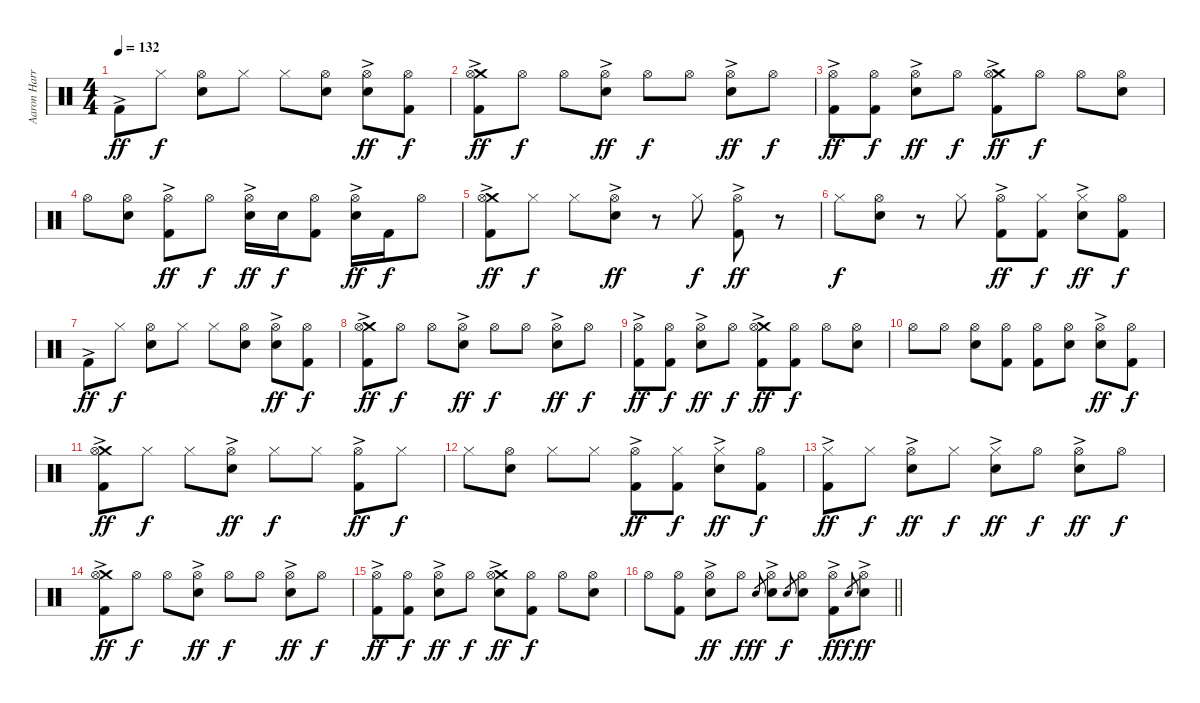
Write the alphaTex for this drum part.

\track ("Aaron Harris" "Aaron Harr") {instrument percussion}
\staff {score}
\articulation defaults
\ts (4 4)
\tempo 132
\clef neutral
\ks c "Kick (hit) 2"{ac}.8{dy ff} "Hi-Hat (closed)".8{dy f}
("Hi-Hat (open)" "Snare (hit) 2").8 "Hi-Hat (closed)".8 "Hi-Hat (closed)".8 ("Hi-Hat (open)" "Snare (hit) 2").8 ("Hi-Hat (open)" "Snare (hit) 2"{ac}).8{dy ff} ("Hi-Hat (open)" "Kick (hit) 2").8{dy f} |
("Crash medium (hit)" "Hi-Hat (open)" "Kick (hit) 2"{ac}).8{dy ff} "Hi-Hat (open)".8{dy f} "Hi-Hat (open)".8 ("Hi-Hat (open)" "Snare (hit) 2"{ac}).8{dy ff} "Hi-Hat (open)".8{dy f} "Hi-Hat (open)".8 ("Hi-Hat (open)" "Snare (hit) 2"{ac}).8{dy ff} "Hi-Hat (open)".8{dy f} |
("Hi-Hat (open)" "Kick (hit) 2"{ac}).8{dy ff} ("Hi-Hat (open)" "Kick (hit) 2").8{dy f} ("Hi-Hat (open)" "Snare (hit) 2"{ac}).8{dy ff} "Hi-Hat (open)".8{dy f} ("Crash medium (hit)" "Hi-Hat (open)" "Kick (hit) 2"{ac}).8{dy ff} "Hi-Hat (open)".8{dy f} "Hi-Hat (open)".8 ("Hi-Hat (open)" "Snare (hit) 2").8 |
"Hi-Hat (open)".8 ("Hi-Hat (open)" "Snare (hit) 2").8 ("Hi-Hat (open)" "Kick (hit) 2"{ac}).8{dy ff} "Hi-Hat (open)".8{dy f} ("Hi-Hat (open)" "Snare (hit) 2"{ac}).16{dy ff} "Snare (hit) 2".16{dy f} ("Hi-Hat (open)" "Kick (hit) 2").8 ("Hi-Hat (open)" "Snare (hit) 2"{ac}).16{dy ff} "Kick (hit) 2".16{dy f} "Hi-Hat (open)".8 |
("Crash medium (hit)" "Hi-Hat (open)" "Kick (hit) 2"{ac}).8{dy ff} "Hi-Hat (closed)".8{dy f} "Hi-Hat (closed)".8 ("Hi-Hat (open)" "Snare (hit) 2"{ac}).8{dy ff} r.8 "Hi-Hat (closed)".8{dy f} ("Hi-Hat (open)" "Kick (hit) 2"{ac}).8{dy ff} r.8 |
"Hi-Hat (closed)".8{dy f} ("Hi-Hat (open)" "Snare (hit) 2").8 r.8 "Hi-Hat (closed)".8 ("Hi-Hat (open)" "Kick (hit) 2"{ac}).8{dy ff} ("Hi-Hat (closed)" "Kick (hit) 2").8{dy f} ("Hi-Hat (closed)" "Snare (hit) 2"{ac}).8{dy ff} ("Hi-Hat (open)" "Kick (hit) 2").8{dy f} |
"Kick (hit) 2"{ac}.8{dy ff} "Hi-Hat (closed)".8{dy f} ("Hi-Hat (open)" "Snare (hit) 2").8 "Hi-Hat (closed)".8 "Hi-Hat (closed)".8 ("Hi-Hat (open)" "Snare (hit) 2").8 ("Hi-Hat (open)" "Snare (hit) 2"{ac}).8{dy ff} ("Hi-Hat (open)" "Kick (hit) 2").8{dy f} |
("Crash medium (hit)" "Hi-Hat (open)" "Kick (hit) 2"{ac}).8{dy ff} "Hi-Hat (open)".8{dy f} "Hi-Hat (open)".8 ("Hi-Hat (open)" "Snare (hit) 2"{ac}).8{dy ff} "Hi-Hat (open)".8{dy f} "Hi-Hat (open)".8 ("Hi-Hat (open)" "Snare (hit) 2"{ac}).8{dy ff} "Hi-Hat (open)".8{dy f} |
("Hi-Hat (open)" "Kick (hit) 2"{ac}).8{dy ff} ("Hi-Hat (open)" "Kick (hit) 2").8{dy f} ("Hi-Hat (open)" "Snare (hit) 2"{ac}).8{dy ff} "Hi-Hat (open)".8{dy f} ("Crash medium (hit)" "Hi-Hat (open)" "Kick (hit) 2"{ac}).8{dy ff} ("Hi-Hat (open)" "Kick (hit) 2").8{dy f} "Hi-Hat (open)".8 ("Hi-Hat (open)" "Snare (hit) 2").8 |
"Hi-Hat (open)".8 "Hi-Hat (open)".8 ("Hi-Hat (open)" "Snare (hit) 2").8 ("Hi-Hat (open)" "Kick (hit) 2").8 ("Hi-Hat (open)" "Kick (hit) 2").8 ("Hi-Hat (open)" "Snare (hit) 2").8 ("Hi-Hat (open)" "Snare (hit) 2"{ac}).8{dy ff} ("Hi-Hat (open)" "Kick (hit) 2").8{dy f} |
("Crash medium (hit)" "Hi-Hat (open)" "Kick (hit) 2"{ac}).8{dy ff} "Hi-Hat (closed)".8{dy f} "Hi-Hat (closed)".8 ("Hi-Hat (open)" "Snare (hit) 2"{ac}).8{dy ff} "Hi-Hat (closed)".8{dy f} "Hi-Hat (closed)".8 ("Hi-Hat (open)" "Kick (hit) 2"{ac}).8{dy ff} "Hi-Hat (closed)".8{dy f} |
"Hi-Hat (closed)".8 ("Hi-Hat (open)" "Snare (hit) 2").8 "Hi-Hat (closed)".8 "Hi-Hat (closed)".8 ("Hi-Hat (open)" "Kick (hit) 2"{ac}).8{dy ff} ("Hi-Hat (closed)" "Kick (hit) 2").8{dy f} ("Hi-Hat (closed)" "Snare (hit) 2"{ac}).8{dy ff} ("Hi-Hat (open)" "Kick (hit) 2").8{dy f} |
("Hi-Hat (closed)" "Kick (hit) 2"{ac}).8{dy ff} "Hi-Hat (closed)".8{dy f} ("Hi-Hat (open)" "Snare (hit) 2"{ac}).8{dy ff} "Hi-Hat (closed)".8{dy f} ("Hi-Hat (closed)" "Snare (hit) 2"{ac}).8{dy ff} "Hi-Hat (open)".8{dy f} ("Hi-Hat (open)" "Snare (hit) 2"{ac}).8{dy ff} "Hi-Hat (open)".8{dy f} |
("Crash medium (hit)" "Hi-Hat (open)" "Kick (hit) 2"{ac}).8{dy ff} "Hi-Hat (open)".8{dy f} "Hi-Hat (open)".8 ("Hi-Hat (open)" "Snare (hit) 2"{ac}).8{dy ff} "Hi-Hat (open)".8{dy f} "Hi-Hat (open)".8 ("Hi-Hat (open)" "Snare (hit) 2"{ac}).8{dy ff} "Hi-Hat (open)".8{dy f} |
("Hi-Hat (open)" "Kick (hit) 2"{ac}).8{dy ff} ("Hi-Hat (open)" "Kick (hit) 2").8{dy f} ("Hi-Hat (open)" "Snare (hit) 2"{ac}).8{dy ff} "Hi-Hat (open)".8{dy f} ("Crash medium (hit)" "Hi-Hat (open)" "Snare (hit) 2"{ac}).8{dy ff} ("Hi-Hat (open)" "Kick (hit) 2").8{dy f} "Hi-Hat (open)".8 ("Hi-Hat (open)" "Snare (hit) 2").8 |
\barLineRight lightlight "Hi-Hat (open)".8
("Hi-Hat (open)" "Kick (hit) 2").8 ("Hi-Hat (open)" "Snare (hit) 2"{ac}).8{dy ff} "Hi-Hat (open)".8{dy f} "Snare (hit) 2".8{gr dy ff} ("Hi-Hat (open)" "Snare (hit) 2"{ac}).8 "Snare (hit) 2".8{gr dy f} ("Hi-Hat (open)" "Snare (hit) 2").8 ("Hi-Hat (open)"{ac} "Kick (hit) 2"{ac}).8{dy ff} "Snare (hit) 2".8{gr dy f} ("Hi-Hat (open)"{ac} "Snare (hit) 2").8{dy ff}
